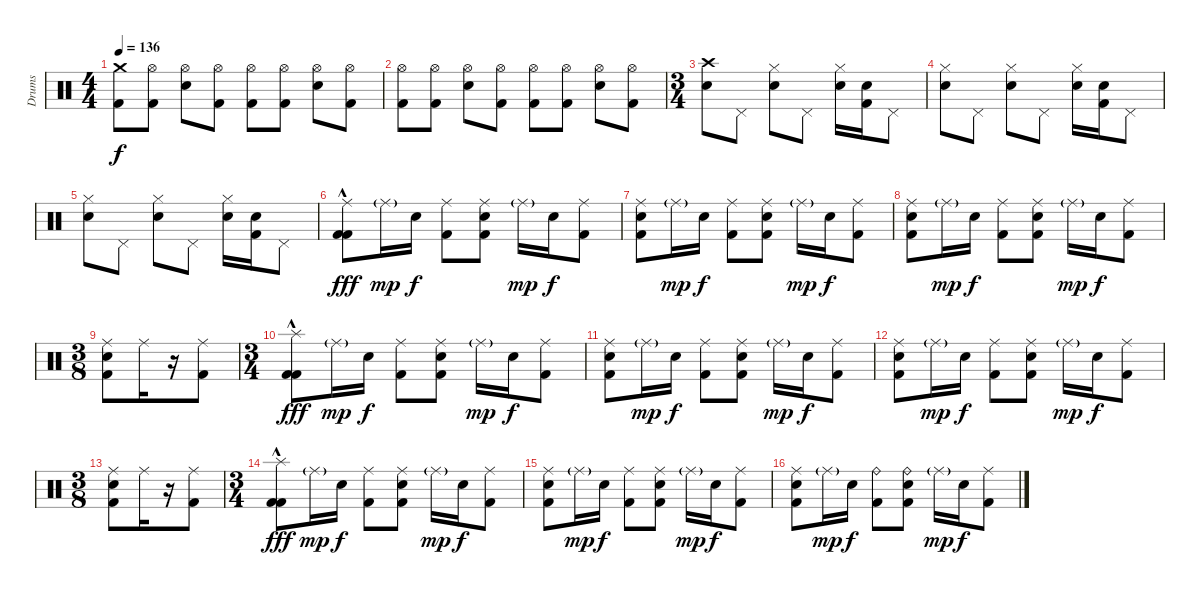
\track ("Drums" "Drums") {instrument percussion}
\staff {score}
\articulation defaults
\ts (4 4)
\tempo 136
\clef neutral
\ks c
("Crash medium (hit)" "Kick (hit) 2").8{dy f} ("Hi-Hat (open)" "Kick (hit) 2").8 ("Hi-Hat (open)" "Electric Snare (hit)").8 ("Hi-Hat (open)" "Kick (hit) 2").8 ("Hi-Hat (open)" "Kick (hit) 2").8 ("Hi-Hat (open)" "Kick (hit) 2").8 ("Hi-Hat (open)" "Electric Snare (hit)").8 ("Hi-Hat (open)" "Kick (hit) 2").8 |
("Hi-Hat (open)" "Kick (hit) 2").8 ("Hi-Hat (open)" "Kick (hit) 2").8 ("Hi-Hat (open)" "Electric Snare (hit)").8 ("Hi-Hat (open)" "Kick (hit) 2").8 ("Hi-Hat (open)" "Kick (hit) 2").8 ("Hi-Hat (open)" "Kick (hit) 2").8 ("Hi-Hat (open)" "Electric Snare (hit)").8 ("Hi-Hat (open)" "Kick (hit) 2").8 |
\ts (3 4)
("Crash high (hit)" "Electric Snare (hit)").8 "Pedal Hi-Hat (hit)".8 ("Hi-Hat (closed)" "Electric Snare (hit)").8 "Pedal Hi-Hat (hit)".8 ("Hi-Hat (closed)" "Electric Snare (hit)").16 ("Electric Snare (hit)" "Kick (hit) 2").16 "Pedal Hi-Hat (hit)".8 |
("Hi-Hat (closed)" "Electric Snare (hit)").8 "Pedal Hi-Hat (hit)".8 ("Hi-Hat (closed)" "Electric Snare (hit)").8 "Pedal Hi-Hat (hit)".8 ("Hi-Hat (closed)" "Electric Snare (hit)").16 ("Electric Snare (hit)" "Kick (hit) 2").16 "Pedal Hi-Hat (hit)".8 |
("Hi-Hat (closed)" "Electric Snare (hit)").8 "Pedal Hi-Hat (hit)".8 ("Hi-Hat (closed)" "Electric Snare (hit)").8 "Pedal Hi-Hat (hit)".8 ("Hi-Hat (closed)" "Electric Snare (hit)").16 ("Electric Snare (hit)" "Kick (hit) 2").16 "Pedal Hi-Hat (hit)".8 |
("Ride (middle)" "Kick (hit) 2"{hac} "Kick (hit) 2"{hac}).8{dy fff} "Ride (middle)"{g}.16{dy mp} "Electric Snare (hit)".16{dy f} ("Ride (middle)" "Kick (hit) 2").8 ("Ride (middle)" "Electric Snare (hit)" "Kick (hit) 2").8 "Ride (middle)"{g}.16{dy mp} "Electric Snare (hit)".16{dy f} ("Ride (middle)" "Kick (hit) 2").8 |
("Ride (middle)" "Electric Snare (hit)" "Kick (hit) 2").8 "Ride (middle)"{g}.16{dy mp} "Electric Snare (hit)".16{dy f} ("Ride (middle)" "Kick (hit) 2").8 ("Ride (middle)" "Electric Snare (hit)" "Kick (hit) 2").8 "Ride (middle)"{g}.16{dy mp} "Electric Snare (hit)".16{dy f} ("Ride (middle)" "Kick (hit) 2").8 |
("Ride (middle)" "Electric Snare (hit)" "Kick (hit) 2").8 "Ride (middle)"{g}.16{dy mp} "Electric Snare (hit)".16{dy f} ("Ride (middle)" "Kick (hit) 2").8 ("Ride (middle)" "Electric Snare (hit)" "Kick (hit) 2").8 "Ride (middle)"{g}.16{dy mp} "Electric Snare (hit)".16{dy f} ("Ride (middle)" "Kick (hit) 2").8 |
\ts (3 8)
("Ride (middle)" "Electric Snare (hit)" "Kick (hit) 2").8 "Ride (middle)".16 r.16 ("Ride (middle)" "Kick (hit) 2").8 |
\ts (3 4)
("Splash (hit)" "Kick (hit) 2"{hac} "Kick (hit) 2"{hac}).8{dy fff} "Ride (middle)"{g}.16{dy mp} "Electric Snare (hit)".16{dy f} ("Ride (middle)" "Kick (hit) 2").8 ("Ride (middle)" "Electric Snare (hit)" "Kick (hit) 2").8 "Ride (middle)"{g}.16{dy mp} "Electric Snare (hit)".16{dy f} ("Ride (middle)" "Kick (hit) 2").8 |
("Ride (middle)" "Electric Snare (hit)" "Kick (hit) 2").8 "Ride (middle)"{g}.16{dy mp} "Electric Snare (hit)".16{dy f} ("Ride (middle)" "Kick (hit) 2").8 ("Ride (middle)" "Electric Snare (hit)" "Kick (hit) 2").8 "Ride (middle)"{g}.16{dy mp} "Electric Snare (hit)".16{dy f} ("Ride (middle)" "Kick (hit) 2").8 |
("Ride (middle)" "Electric Snare (hit)" "Kick (hit) 2").8 "Ride (middle)"{g}.16{dy mp} "Electric Snare (hit)".16{dy f} ("Ride (middle)" "Kick (hit) 2").8 ("Ride (middle)" "Electric Snare (hit)" "Kick (hit) 2").8 "Ride (middle)"{g}.16{dy mp} "Electric Snare (hit)".16{dy f} ("Ride (middle)" "Kick (hit) 2").8 |
\ts (3 8)
("Ride (middle)" "Electric Snare (hit)" "Kick (hit) 2").8 "Ride (middle)".16 r.16 ("Ride (middle)" "Kick (hit) 2").8 |
\ts (3 4)
("Splash (hit)" "Kick (hit) 2"{hac} "Kick (hit) 2"{hac}).8{dy fff} "Ride (middle)"{g}.16{dy mp} "Electric Snare (hit)".16{dy f} ("Ride (middle)" "Kick (hit) 2").8 ("Ride (middle)" "Electric Snare (hit)" "Kick (hit) 2").8 "Ride (middle)"{g}.16{dy mp} "Electric Snare (hit)".16{dy f} ("Ride (middle)" "Kick (hit) 2").8 |
("Ride (middle)" "Electric Snare (hit)" "Kick (hit) 2").8 "Ride (middle)"{g}.16{dy mp} "Electric Snare (hit)".16{dy f} ("Ride (middle)" "Kick (hit) 2").8 ("Ride (middle)" "Electric Snare (hit)" "Kick (hit) 2").8 "Ride (middle)"{g}.16{dy mp} "Electric Snare (hit)".16{dy f} ("Ride (middle)" "Kick (hit) 2").8 |
("Ride (middle)" "Electric Snare (hit)" "Kick (hit) 2").8 "Ride (middle)"{g}.16{dy mp} "Electric Snare (hit)".16{dy f} ("Ride (bell)" "Kick (hit) 2").8 ("Ride (bell)" "Electric Snare (hit)" "Kick (hit) 2").8 "Ride (middle)"{g}.16{dy mp} "Electric Snare (hit)".16{dy f} ("Ride (middle)" "Kick (hit) 2").8
